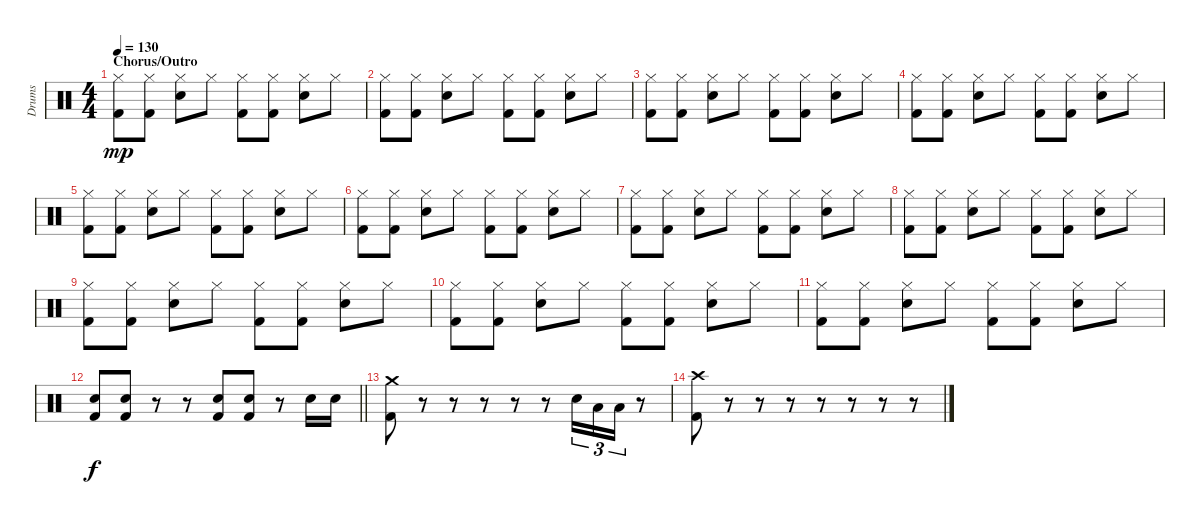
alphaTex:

\track ("Drums" "Drums") {instrument percussion}
\staff {score}
\articulation defaults
\ts (4 4)
\section ("" "Chorus/Outro")
\tempo 130
\clef neutral
\ks c
("Hi-Hat (closed)" "Kick (hit) 2").8{dy mp} ("Hi-Hat (closed)" "Kick (hit) 2").8 ("Hi-Hat (closed)" "Snare (hit) 2").8 "Hi-Hat (closed)".8 ("Hi-Hat (closed)" "Kick (hit) 2").8 ("Hi-Hat (closed)" "Kick (hit) 2").8 ("Hi-Hat (closed)" "Snare (hit) 2").8 "Hi-Hat (closed)".8 |
("Hi-Hat (closed)" "Kick (hit) 2").8 ("Hi-Hat (closed)" "Kick (hit) 2").8 ("Hi-Hat (closed)" "Snare (hit) 2").8 "Hi-Hat (closed)".8 ("Hi-Hat (closed)" "Kick (hit) 2").8 ("Hi-Hat (closed)" "Kick (hit) 2").8 ("Hi-Hat (closed)" "Snare (hit) 2").8 "Hi-Hat (closed)".8 |
("Hi-Hat (closed)" "Kick (hit) 2").8 ("Hi-Hat (closed)" "Kick (hit) 2").8 ("Hi-Hat (closed)" "Snare (hit) 2").8 "Hi-Hat (closed)".8 ("Hi-Hat (closed)" "Kick (hit) 2").8 ("Hi-Hat (closed)" "Kick (hit) 2").8 ("Hi-Hat (closed)" "Snare (hit) 2").8 "Hi-Hat (closed)".8 |
("Hi-Hat (closed)" "Kick (hit) 2").8 ("Hi-Hat (closed)" "Kick (hit) 2").8 ("Hi-Hat (closed)" "Snare (hit) 2").8 "Hi-Hat (closed)".8 ("Hi-Hat (closed)" "Kick (hit) 2").8 ("Hi-Hat (closed)" "Kick (hit) 2").8 ("Hi-Hat (closed)" "Snare (hit) 2").8 "Hi-Hat (closed)".8 |
("Hi-Hat (closed)" "Kick (hit) 2").8 ("Hi-Hat (closed)" "Kick (hit) 2").8 ("Hi-Hat (closed)" "Snare (hit) 2").8 "Hi-Hat (closed)".8 ("Hi-Hat (closed)" "Kick (hit) 2").8 ("Hi-Hat (closed)" "Kick (hit) 2").8 ("Hi-Hat (closed)" "Snare (hit) 2").8 "Hi-Hat (closed)".8 |
("Hi-Hat (closed)" "Kick (hit) 2").8 ("Hi-Hat (closed)" "Kick (hit) 2").8 ("Hi-Hat (closed)" "Snare (hit) 2").8 "Hi-Hat (closed)".8 ("Hi-Hat (closed)" "Kick (hit) 2").8 ("Hi-Hat (closed)" "Kick (hit) 2").8 ("Hi-Hat (closed)" "Snare (hit) 2").8 "Hi-Hat (closed)".8 |
("Hi-Hat (closed)" "Kick (hit) 2").8 ("Hi-Hat (closed)" "Kick (hit) 2").8 ("Hi-Hat (closed)" "Snare (hit) 2").8 "Hi-Hat (closed)".8 ("Hi-Hat (closed)" "Kick (hit) 2").8 ("Hi-Hat (closed)" "Kick (hit) 2").8 ("Hi-Hat (closed)" "Snare (hit) 2").8 "Hi-Hat (closed)".8 |
("Hi-Hat (closed)" "Kick (hit) 2").8 ("Hi-Hat (closed)" "Kick (hit) 2").8 ("Hi-Hat (closed)" "Snare (hit) 2").8 "Hi-Hat (closed)".8 ("Hi-Hat (closed)" "Kick (hit) 2").8 ("Hi-Hat (closed)" "Kick (hit) 2").8 ("Hi-Hat (closed)" "Snare (hit) 2").8 "Hi-Hat (closed)".8 |
("Hi-Hat (closed)" "Kick (hit) 2").8 ("Hi-Hat (closed)" "Kick (hit) 2").8 ("Hi-Hat (closed)" "Snare (hit) 2").8 "Hi-Hat (closed)".8 ("Hi-Hat (closed)" "Kick (hit) 2").8 ("Hi-Hat (closed)" "Kick (hit) 2").8 ("Hi-Hat (closed)" "Snare (hit) 2").8 "Hi-Hat (closed)".8 |
("Hi-Hat (closed)" "Kick (hit) 2").8 ("Hi-Hat (closed)" "Kick (hit) 2").8 ("Hi-Hat (closed)" "Snare (hit) 2").8 "Hi-Hat (closed)".8 ("Hi-Hat (closed)" "Kick (hit) 2").8 ("Hi-Hat (closed)" "Kick (hit) 2").8 ("Hi-Hat (closed)" "Snare (hit) 2").8 "Hi-Hat (closed)".8 |
("Hi-Hat (closed)" "Kick (hit) 2").8 ("Hi-Hat (closed)" "Kick (hit) 2").8 ("Hi-Hat (closed)" "Snare (hit) 2").8 "Hi-Hat (closed)".8 ("Hi-Hat (closed)" "Kick (hit) 2").8 ("Hi-Hat (closed)" "Kick (hit) 2").8 ("Hi-Hat (closed)" "Snare (hit) 2").8 "Hi-Hat (closed)".8 |
\barLineRight lightlight
("Snare (hit) 2" "Kick (hit) 2").8{dy f} ("Snare (hit) 2" "Kick (hit) 2").8 r.8 r.8 ("Snare (hit) 2" "Kick (hit) 2").8 ("Snare (hit) 2" "Kick (hit) 2").8 r.8 "Snare (hit) 2".16 "Snare (hit) 2".16 |
("Crash medium (hit)" "Kick (hit) 2").8 r.8 r.8 r.8 r.8 r.8 "Snare (hit) 2".16{tu (3 2)} "Low Tom (hit)".16{tu (3 2)} "Low Floor Tom (hit)".16{tu (3 2)} r.8 |
("Crash high (hit)" "Kick (hit) 2").8 r.8 r.8 r.8 r.8 r.8 r.8 r.8
